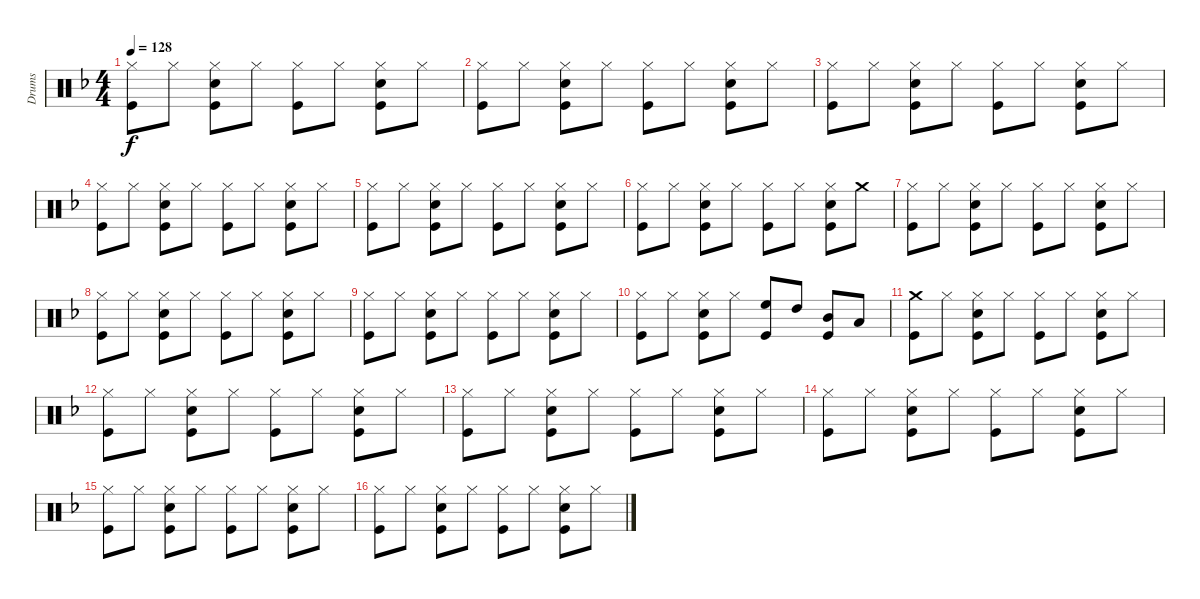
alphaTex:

\track ("Drums" "Drums") {instrument percussion}
\staff {score}
\articulation defaults
\ts (4 4)
\tempo 128
\clef neutral
\ks f
("Hi-Hat (closed)" "Kick (hit)").8{dy f} "Hi-Hat (closed)".8 ("Hi-Hat (closed)" "Snare (hit) 2" "Kick (hit)").8 "Hi-Hat (closed)".8 ("Hi-Hat (closed)" "Kick (hit)").8 "Hi-Hat (closed)".8 ("Hi-Hat (closed)" "Snare (hit) 2" "Kick (hit)").8 "Hi-Hat (closed)".8 |
("Hi-Hat (closed)" "Kick (hit)").8 "Hi-Hat (closed)".8 ("Hi-Hat (closed)" "Snare (hit) 2" "Kick (hit)").8 "Hi-Hat (closed)".8 ("Hi-Hat (closed)" "Kick (hit)").8 "Hi-Hat (closed)".8 ("Hi-Hat (closed)" "Snare (hit) 2" "Kick (hit)").8 "Hi-Hat (closed)".8 |
("Hi-Hat (closed)" "Kick (hit)").8 "Hi-Hat (closed)".8 ("Hi-Hat (closed)" "Snare (hit) 2" "Kick (hit)").8 "Hi-Hat (closed)".8 ("Hi-Hat (closed)" "Kick (hit)").8 "Hi-Hat (closed)".8 ("Hi-Hat (closed)" "Snare (hit) 2" "Kick (hit)").8 "Hi-Hat (closed)".8 |
("Hi-Hat (closed)" "Kick (hit)").8 "Hi-Hat (closed)".8 ("Hi-Hat (closed)" "Snare (hit) 2" "Kick (hit)").8 "Hi-Hat (closed)".8 ("Hi-Hat (closed)" "Kick (hit)").8 "Hi-Hat (closed)".8 ("Hi-Hat (closed)" "Snare (hit) 2" "Kick (hit)").8 "Hi-Hat (closed)".8 |
("Hi-Hat (closed)" "Kick (hit)").8 "Hi-Hat (closed)".8 ("Hi-Hat (closed)" "Snare (hit) 2" "Kick (hit)").8 "Hi-Hat (closed)".8 ("Hi-Hat (closed)" "Kick (hit)").8 "Hi-Hat (closed)".8 ("Hi-Hat (closed)" "Snare (hit) 2" "Kick (hit)").8 "Hi-Hat (closed)".8 |
("Hi-Hat (closed)" "Kick (hit)").8 "Hi-Hat (closed)".8 ("Hi-Hat (closed)" "Snare (hit) 2" "Kick (hit)").8 "Hi-Hat (closed)".8 ("Hi-Hat (closed)" "Kick (hit)").8 "Hi-Hat (closed)".8 ("Hi-Hat (closed)" "Snare (hit) 2" "Kick (hit)").8 "Crash medium (hit)".8 |
("Hi-Hat (closed)" "Kick (hit)").8 "Hi-Hat (closed)".8 ("Hi-Hat (closed)" "Snare (hit) 2" "Kick (hit)").8 "Hi-Hat (closed)".8 ("Hi-Hat (closed)" "Kick (hit)").8 "Hi-Hat (closed)".8 ("Hi-Hat (closed)" "Snare (hit) 2" "Kick (hit)").8 "Hi-Hat (closed)".8 |
("Hi-Hat (closed)" "Kick (hit)").8 "Hi-Hat (closed)".8 ("Hi-Hat (closed)" "Snare (hit) 2" "Kick (hit)").8 "Hi-Hat (closed)".8 ("Hi-Hat (closed)" "Kick (hit)").8 "Hi-Hat (closed)".8 ("Hi-Hat (closed)" "Snare (hit) 2" "Kick (hit)").8 "Hi-Hat (closed)".8 |
("Hi-Hat (closed)" "Kick (hit)").8 "Hi-Hat (closed)".8 ("Hi-Hat (closed)" "Snare (hit) 2" "Kick (hit)").8 "Hi-Hat (closed)".8 ("Hi-Hat (closed)" "Kick (hit)").8 "Hi-Hat (closed)".8 ("Hi-Hat (closed)" "Snare (hit) 2" "Kick (hit)").8 "Hi-Hat (closed)".8 |
("Hi-Hat (closed)" "Kick (hit)").8 "Hi-Hat (closed)".8 ("Hi-Hat (closed)" "Snare (hit) 2" "Kick (hit)").8 "Hi-Hat (closed)".8 ("High Floor Tom (hit)" "Kick (hit)").8 "High Tom (hit)".8 ("Mid Tom (hit)" "Kick (hit)").8 "Low Tom (hit)".8 |
("Crash medium (hit)" "Kick (hit)").8 "Hi-Hat (closed)".8 ("Hi-Hat (closed)" "Snare (hit) 2" "Kick (hit)").8 "Hi-Hat (closed)".8 ("Hi-Hat (closed)" "Kick (hit)").8 "Hi-Hat (closed)".8 ("Hi-Hat (closed)" "Snare (hit) 2" "Kick (hit)").8 "Hi-Hat (closed)".8 |
("Hi-Hat (closed)" "Kick (hit)").8 "Hi-Hat (closed)".8 ("Hi-Hat (closed)" "Snare (hit) 2" "Kick (hit)").8 "Hi-Hat (closed)".8 ("Hi-Hat (closed)" "Kick (hit)").8 "Hi-Hat (closed)".8 ("Hi-Hat (closed)" "Snare (hit) 2" "Kick (hit)").8 "Hi-Hat (closed)".8 |
("Hi-Hat (closed)" "Kick (hit)").8 "Hi-Hat (closed)".8 ("Hi-Hat (closed)" "Snare (hit) 2" "Kick (hit)").8 "Hi-Hat (closed)".8 ("Hi-Hat (closed)" "Kick (hit)").8 "Hi-Hat (closed)".8 ("Hi-Hat (closed)" "Snare (hit) 2" "Kick (hit)").8 "Hi-Hat (closed)".8 |
("Hi-Hat (closed)" "Kick (hit)").8 "Hi-Hat (closed)".8 ("Hi-Hat (closed)" "Snare (hit) 2" "Kick (hit)").8 "Hi-Hat (closed)".8 ("Hi-Hat (closed)" "Kick (hit)").8 "Hi-Hat (closed)".8 ("Hi-Hat (closed)" "Snare (hit) 2" "Kick (hit)").8 "Hi-Hat (closed)".8 |
("Hi-Hat (closed)" "Kick (hit)").8 "Hi-Hat (closed)".8 ("Hi-Hat (closed)" "Snare (hit) 2" "Kick (hit)").8 "Hi-Hat (closed)".8 ("Hi-Hat (closed)" "Kick (hit)").8 "Hi-Hat (closed)".8 ("Hi-Hat (closed)" "Snare (hit) 2" "Kick (hit)").8 "Hi-Hat (closed)".8 |
("Hi-Hat (closed)" "Kick (hit)").8 "Hi-Hat (closed)".8 ("Hi-Hat (closed)" "Snare (hit) 2" "Kick (hit)").8 "Hi-Hat (closed)".8 ("Hi-Hat (closed)" "Kick (hit)").8 "Hi-Hat (closed)".8 ("Hi-Hat (closed)" "Snare (hit) 2" "Kick (hit)").8 "Hi-Hat (closed)".8
